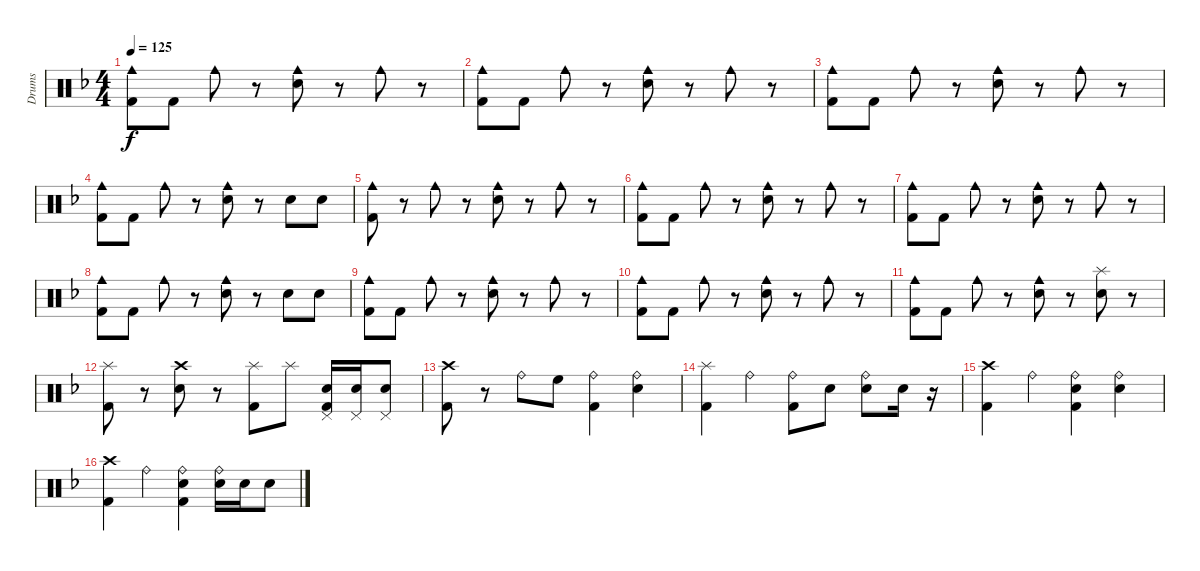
\track ("Drums" "Drums") {instrument percussion}
\staff {score}
\articulation defaults
\ts (4 4)
\tempo 125
\clef neutral
\ks f
("Cowbell medium (hit)" "Kick (hit) 2").8{dy f} "Kick (hit) 2".8 "Cowbell medium (hit)".8 r.8 ("Cowbell medium (hit)" "Electric Snare (hit)").8 r.8 "Cowbell medium (hit)".8 r.8 |
("Cowbell medium (hit)" "Kick (hit) 2").8 "Kick (hit) 2".8 "Cowbell medium (hit)".8 r.8 ("Cowbell medium (hit)" "Electric Snare (hit)").8 r.8 "Cowbell medium (hit)".8 r.8 |
("Cowbell medium (hit)" "Kick (hit) 2").8 "Kick (hit) 2".8 "Cowbell medium (hit)".8 r.8 ("Cowbell medium (hit)" "Electric Snare (hit)").8 r.8 "Cowbell medium (hit)".8 r.8 |
("Cowbell medium (hit)" "Kick (hit) 2").8 "Kick (hit) 2".8 "Cowbell medium (hit)".8 r.8 ("Cowbell medium (hit)" "Electric Snare (hit)").8 r.8 "Electric Snare (hit)".8 "Electric Snare (hit)".8 |
("Cowbell medium (hit)" "Kick (hit) 2").8 r.8 "Cowbell medium (hit)".8 r.8 ("Cowbell medium (hit)" "Electric Snare (hit)").8 r.8 "Cowbell medium (hit)".8 r.8 |
("Cowbell medium (hit)" "Kick (hit) 2").8 "Kick (hit) 2".8 "Cowbell medium (hit)".8 r.8 ("Cowbell medium (hit)" "Electric Snare (hit)").8 r.8 "Cowbell medium (hit)".8 r.8 |
("Cowbell medium (hit)" "Kick (hit) 2").8 "Kick (hit) 2".8 "Cowbell medium (hit)".8 r.8 ("Cowbell medium (hit)" "Electric Snare (hit)").8 r.8 "Cowbell medium (hit)".8 r.8 |
("Cowbell medium (hit)" "Kick (hit) 2").8 "Kick (hit) 2".8 "Cowbell medium (hit)".8 r.8 ("Cowbell medium (hit)" "Electric Snare (hit)").8 r.8 "Electric Snare (hit)".8 "Electric Snare (hit)".8 |
("Cowbell medium (hit)" "Kick (hit) 2").8 "Kick (hit) 2".8 "Cowbell medium (hit)".8 r.8 ("Cowbell medium (hit)" "Electric Snare (hit)").8 r.8 "Cowbell medium (hit)".8 r.8 |
("Cowbell medium (hit)" "Kick (hit) 2").8 "Kick (hit) 2".8 "Cowbell medium (hit)".8 r.8 ("Cowbell medium (hit)" "Electric Snare (hit)").8 r.8 "Cowbell medium (hit)".8 r.8 |
("Cowbell medium (hit)" "Kick (hit) 2").8 "Kick (hit) 2".8 "Cowbell medium (hit)".8 r.8 ("Cowbell medium (hit)" "Electric Snare (hit)").8 r.8 ("Splash (hit)" "Electric Snare (hit)").8 r.8 |
("Splash (hit)" "Kick (hit) 2").8 r.8 ("Crash high (hit)" "Electric Snare (hit)").8 r.8 ("Splash (hit)" "Kick (hit) 2").8 "Splash (hit)".8 ("Pedal Hi-Hat (hit)" "Electric Snare (hit)" "Kick (hit) 2").16 ("Pedal Hi-Hat (hit)" "Electric Snare (hit)").16 ("Pedal Hi-Hat (hit)" "Electric Snare (hit)").8 |
("Crash high (hit)" "Kick (hit) 2").8 r.8 "Ride (bell)".8 "High Floor Tom (hit)".8 ("Ride (bell)" "Kick (hit) 2").4 ("Ride (bell)" "Electric Snare (hit)").4 |
("Splash (hit)" "Kick (hit) 2").4 "Ride (bell)".4 ("Ride (bell)" "Kick (hit) 2").8 "Electric Snare (hit)".8 ("Ride (bell)" "Electric Snare (hit)").8 "Electric Snare (hit)".16 r.16 |
("Crash high (hit)" "Kick (hit) 2").4 "Ride (bell)".4 ("Ride (bell)" "Electric Snare (hit)" "Kick (hit) 2").4 ("Ride (bell)" "Electric Snare (hit)").4 |
("Crash high (hit)" "Kick (hit) 2").4 "Ride (bell)".4 ("Ride (bell)" "Electric Snare (hit)" "Kick (hit) 2").4 ("Ride (bell)" "Electric Snare (hit)").16 "Electric Snare (hit)".16 "Electric Snare (hit)".8
